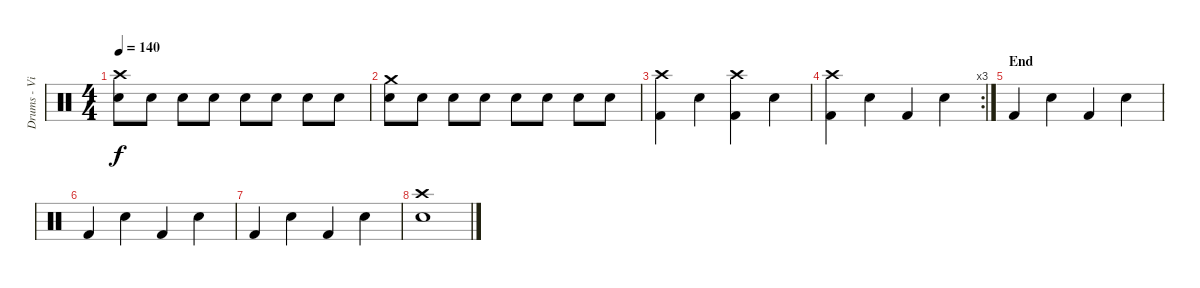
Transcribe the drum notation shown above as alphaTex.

\track ("Drums - Vicko" "Drums - Vi") {instrument percussion}
\staff {score}
\articulation defaults
\ts (4 4)
\tempo 140
\clef neutral
\ks c
("Snare (hit) 2" "Crash high (hit)").8{dy f} "Snare (hit) 2".8 "Snare (hit) 2".8 "Snare (hit) 2".8 "Snare (hit) 2".8 "Snare (hit) 2".8 "Snare (hit) 2".8 "Snare (hit) 2".8 |
("Snare (hit) 2" "Crash medium (hit)").8 "Snare (hit) 2".8 "Snare (hit) 2".8 "Snare (hit) 2".8 "Snare (hit) 2".8 "Snare (hit) 2".8 "Snare (hit) 2".8 "Snare (hit) 2".8 |
("Kick (hit) 2" "Crash high (hit)").4 "Snare (hit) 2".4 ("Kick (hit) 2" "Crash high (hit)").4 "Snare (hit) 2".4 |
\rc 3
("Kick (hit) 2" "Crash high (hit)").4 "Snare (hit) 2".4 "Kick (hit) 2".4 "Snare (hit) 2".4 |
\section ("" "End")
"Kick (hit) 2".4 "Snare (hit) 2".4 "Kick (hit) 2".4 "Snare (hit) 2".4 |
"Kick (hit) 2".4 "Snare (hit) 2".4 "Kick (hit) 2".4 "Snare (hit) 2".4 |
"Kick (hit) 2".4 "Snare (hit) 2".4 "Kick (hit) 2".4 "Snare (hit) 2".4 |
("Snare (hit) 2" "Crash high (hit)").1
